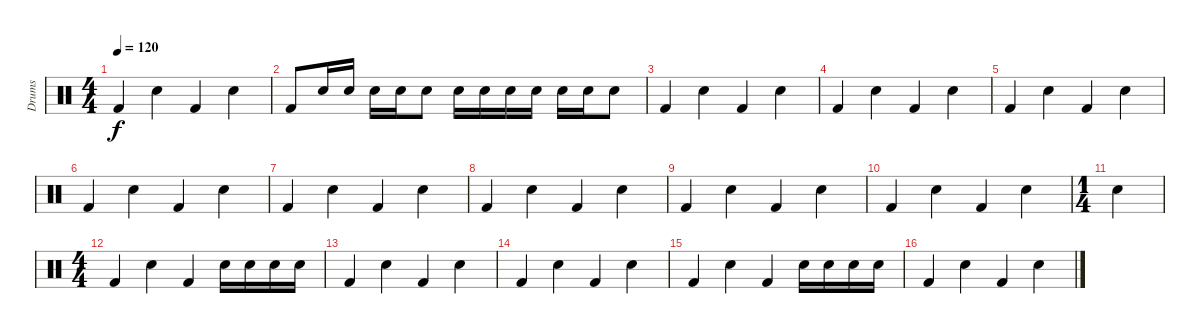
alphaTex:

\track ("Drums" "Drums") {instrument percussion}
\staff {score}
\articulation defaults
\ts (4 4)
\tempo 120
\clef neutral
\ks c "Kick (hit) 2".4{dy f} "Electric Snare (hit)".4 "Kick (hit) 2".4 "Electric Snare (hit)".4
|
"Kick (hit) 2".8 "Electric Snare (hit)".16 "Electric Snare (hit)".16 "Electric Snare (hit)".16 "Electric Snare (hit)".16 "Electric Snare (hit)".8 "Electric Snare (hit)".16 "Electric Snare (hit)".16 "Electric Snare (hit)".16 "Electric Snare (hit)".16 "Electric Snare (hit)".16 "Electric Snare (hit)".16 "Electric Snare (hit)".8 |
"Kick (hit) 2".4 "Electric Snare (hit)".4 "Kick (hit) 2".4 "Electric Snare (hit)".4 |
"Kick (hit) 2".4 "Electric Snare (hit)".4 "Kick (hit) 2".4 "Electric Snare (hit)".4 |
"Kick (hit) 2".4 "Electric Snare (hit)".4 "Kick (hit) 2".4 "Electric Snare (hit)".4 |
"Kick (hit) 2".4 "Electric Snare (hit)".4 "Kick (hit) 2".4 "Electric Snare (hit)".4 |
"Kick (hit) 2".4 "Electric Snare (hit)".4 "Kick (hit) 2".4 "Electric Snare (hit)".4 |
"Kick (hit) 2".4 "Electric Snare (hit)".4 "Kick (hit) 2".4 "Electric Snare (hit)".4 |
"Kick (hit) 2".4 "Electric Snare (hit)".4 "Kick (hit) 2".4 "Electric Snare (hit)".4 |
"Kick (hit) 2".4 "Electric Snare (hit)".4 "Kick (hit) 2".4 "Electric Snare (hit)".4 |
\ts (1 4)
"Electric Snare (hit)".4 |
\ts (4 4)
"Kick (hit) 2".4 "Electric Snare (hit)".4 "Kick (hit) 2".4 "Electric Snare (hit)".16 "Electric Snare (hit)".16 "Electric Snare (hit)".16 "Electric Snare (hit)".16 |
"Kick (hit) 2".4 "Electric Snare (hit)".4 "Kick (hit) 2".4 "Electric Snare (hit)".4 |
"Kick (hit) 2".4 "Electric Snare (hit)".4 "Kick (hit) 2".4 "Electric Snare (hit)".4 |
"Kick (hit) 2".4 "Electric Snare (hit)".4 "Kick (hit) 2".4 "Electric Snare (hit)".16 "Electric Snare (hit)".16 "Electric Snare (hit)".16 "Electric Snare (hit)".16 |
"Kick (hit) 2".4 "Electric Snare (hit)".4 "Kick (hit) 2".4 "Electric Snare (hit)".4
